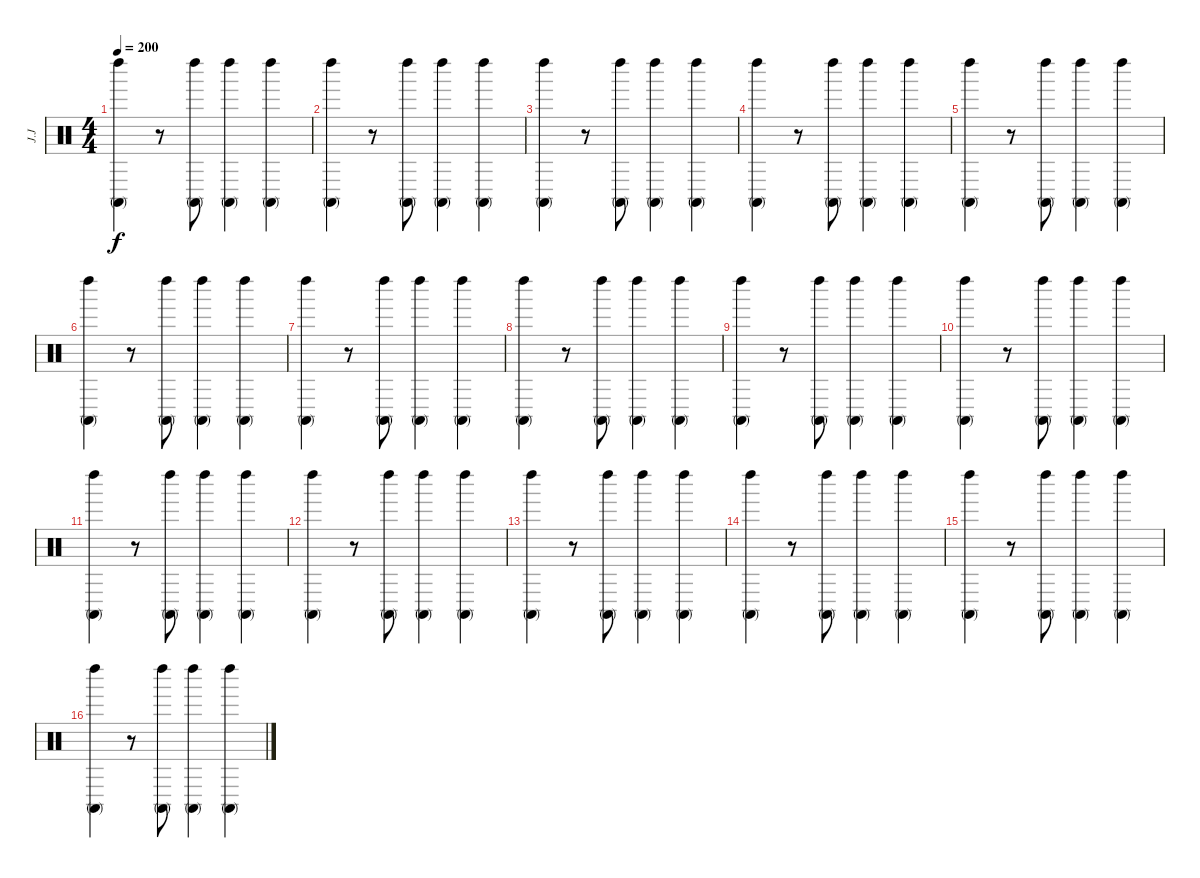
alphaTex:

\track ("J.J" "J.J") {instrument percussion}
\staff {score}
\articulation defaults
\ts (4 4)
\tempo 200
\clef neutral
\ks c
("Conga high (mute)" "Left Maraca (hit)").4{dy f} r.8 ("Conga high (mute)" "Left Maraca (hit)").8 ("Conga high (mute)" "Left Maraca (hit)").4 ("Conga high (mute)" "Left Maraca (hit)").4 |
("Conga high (mute)" "Left Maraca (hit)").4 r.8 ("Conga high (mute)" "Left Maraca (hit)").8 ("Conga high (mute)" "Left Maraca (hit)").4 ("Conga high (mute)" "Left Maraca (hit)").4 |
("Conga high (mute)" "Left Maraca (hit)").4 r.8 ("Conga high (mute)" "Left Maraca (hit)").8 ("Conga high (mute)" "Left Maraca (hit)").4 ("Conga high (mute)" "Left Maraca (hit)").4 |
("Conga high (mute)" "Left Maraca (hit)").4 r.8 ("Conga high (mute)" "Left Maraca (hit)").8 ("Conga high (mute)" "Left Maraca (hit)").4 ("Conga high (mute)" "Left Maraca (hit)").4 |
("Conga high (mute)" "Left Maraca (hit)").4 r.8 ("Conga high (mute)" "Left Maraca (hit)").8 ("Conga high (mute)" "Left Maraca (hit)").4 ("Conga high (mute)" "Left Maraca (hit)").4 |
("Conga high (mute)" "Left Maraca (hit)").4 r.8 ("Conga high (mute)" "Left Maraca (hit)").8 ("Conga high (mute)" "Left Maraca (hit)").4 ("Conga high (mute)" "Left Maraca (hit)").4 |
("Conga high (mute)" "Left Maraca (hit)").4 r.8 ("Conga high (mute)" "Left Maraca (hit)").8 ("Conga high (mute)" "Left Maraca (hit)").4 ("Conga high (mute)" "Left Maraca (hit)").4 |
("Conga high (mute)" "Left Maraca (hit)").4 r.8 ("Conga high (mute)" "Left Maraca (hit)").8 ("Conga high (mute)" "Left Maraca (hit)").4 ("Conga high (mute)" "Left Maraca (hit)").4 |
("Conga high (mute)" "Left Maraca (hit)").4 r.8 ("Conga high (mute)" "Left Maraca (hit)").8 ("Conga high (mute)" "Left Maraca (hit)").4 ("Conga high (mute)" "Left Maraca (hit)").4 |
("Conga high (mute)" "Left Maraca (hit)").4 r.8 ("Conga high (mute)" "Left Maraca (hit)").8 ("Conga high (mute)" "Left Maraca (hit)").4 ("Conga high (mute)" "Left Maraca (hit)").4 |
("Conga high (mute)" "Left Maraca (hit)").4 r.8 ("Conga high (mute)" "Left Maraca (hit)").8 ("Conga high (mute)" "Left Maraca (hit)").4 ("Conga high (mute)" "Left Maraca (hit)").4 |
("Conga high (mute)" "Left Maraca (hit)").4 r.8 ("Conga high (mute)" "Left Maraca (hit)").8 ("Conga high (mute)" "Left Maraca (hit)").4 ("Conga high (mute)" "Left Maraca (hit)").4 |
("Conga high (mute)" "Left Maraca (hit)").4 r.8 ("Conga high (mute)" "Left Maraca (hit)").8 ("Conga high (mute)" "Left Maraca (hit)").4 ("Conga high (mute)" "Left Maraca (hit)").4 |
("Conga high (mute)" "Left Maraca (hit)").4 r.8 ("Conga high (mute)" "Left Maraca (hit)").8 ("Conga high (mute)" "Left Maraca (hit)").4 ("Conga high (mute)" "Left Maraca (hit)").4 |
("Conga high (mute)" "Left Maraca (hit)").4 r.8 ("Conga high (mute)" "Left Maraca (hit)").8 ("Conga high (mute)" "Left Maraca (hit)").4 ("Conga high (mute)" "Left Maraca (hit)").4 |
("Conga high (mute)" "Left Maraca (hit)").4 r.8 ("Conga high (mute)" "Left Maraca (hit)").8 ("Conga high (mute)" "Left Maraca (hit)").4 ("Conga high (mute)" "Left Maraca (hit)").4
